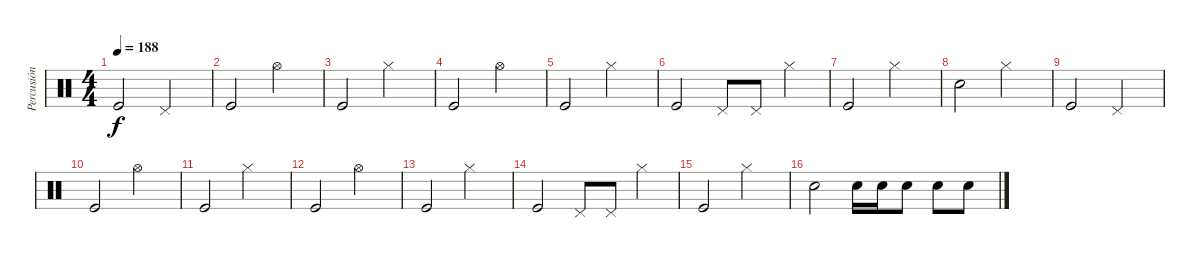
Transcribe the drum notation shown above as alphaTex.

\track ("Percusión" "Percusión") {instrument percussion}
\staff {score}
\articulation defaults
\ts (4 4)
\tempo 188
\clef neutral
\ks c "Kick (hit)".2{dy f} "Pedal Hi-Hat (hit)".2
|
"Kick (hit)".2 "Hi-Hat (open)".2 |
"Kick (hit)".2 "Hi-Hat (closed)".2 |
"Kick (hit)".2 "Hi-Hat (open)".2 |
"Kick (hit)".2 "Hi-Hat (closed)".2 |
"Kick (hit)".2 "Pedal Hi-Hat (hit)".8 "Pedal Hi-Hat (hit)".8 "Hi-Hat (closed)".4 |
"Kick (hit)".2 "Hi-Hat (closed)".2 |
"Snare (hit)"{x}.2 "Hi-Hat (closed)".2 |
"Kick (hit)".2 "Pedal Hi-Hat (hit)".2 |
"Kick (hit)".2 "Hi-Hat (open)".2 |
"Kick (hit)".2 "Hi-Hat (closed)".2 |
"Kick (hit)".2 "Hi-Hat (open)".2 |
"Kick (hit)".2 "Hi-Hat (closed)".2 |
"Kick (hit)".2 "Pedal Hi-Hat (hit)".8 "Pedal Hi-Hat (hit)".8 "Hi-Hat (closed)".4 |
"Kick (hit)".2 "Hi-Hat (closed)".2 |
"Snare (hit)"{x}.2 "Snare (hit) 2".16 "Snare (hit) 2".16 "Snare (hit) 2".8 "Snare (hit) 2".8 "Snare (hit) 2".8
